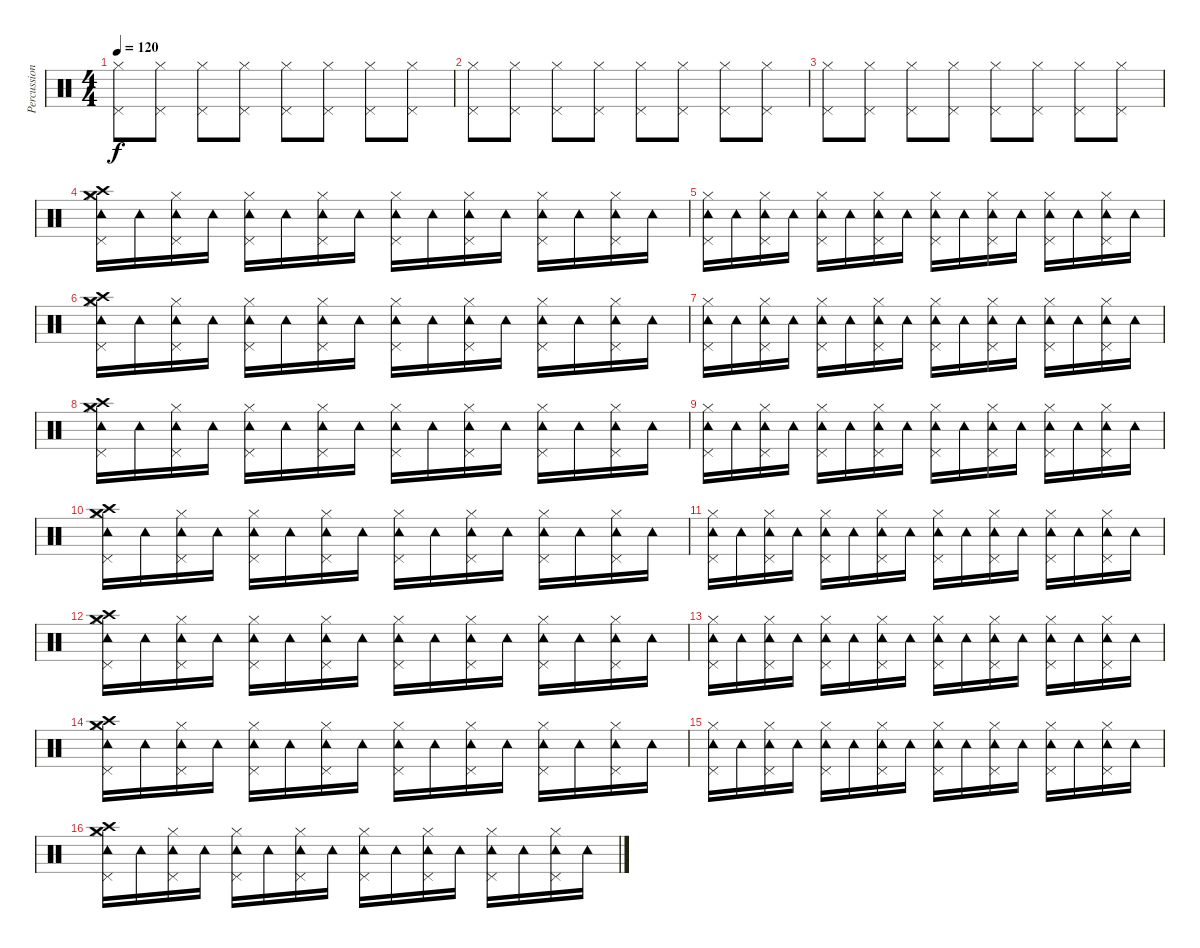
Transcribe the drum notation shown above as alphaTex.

\track ("Percussion" "Percussion") {instrument percussion}
\staff {score}
\articulation defaults
\ts (4 4)
\tempo 120
\clef neutral
\ks c
("Hi-Hat (closed)" "Pedal Hi-Hat (hit)").8{dy f} ("Hi-Hat (closed)" "Pedal Hi-Hat (hit)").8 ("Hi-Hat (closed)" "Pedal Hi-Hat (hit)").8 ("Hi-Hat (closed)" "Pedal Hi-Hat (hit)").8 ("Hi-Hat (closed)" "Pedal Hi-Hat (hit)").8 ("Hi-Hat (closed)" "Pedal Hi-Hat (hit)").8 ("Hi-Hat (closed)" "Pedal Hi-Hat (hit)").8 ("Hi-Hat (closed)" "Pedal Hi-Hat (hit)").8 |
("Hi-Hat (closed)" "Pedal Hi-Hat (hit)").8 ("Hi-Hat (closed)" "Pedal Hi-Hat (hit)").8 ("Hi-Hat (closed)" "Pedal Hi-Hat (hit)").8 ("Hi-Hat (closed)" "Pedal Hi-Hat (hit)").8 ("Hi-Hat (closed)" "Pedal Hi-Hat (hit)").8 ("Hi-Hat (closed)" "Pedal Hi-Hat (hit)").8 ("Hi-Hat (closed)" "Pedal Hi-Hat (hit)").8 ("Hi-Hat (closed)" "Pedal Hi-Hat (hit)").8 |
("Hi-Hat (closed)" "Pedal Hi-Hat (hit)").8 ("Hi-Hat (closed)" "Pedal Hi-Hat (hit)").8 ("Hi-Hat (closed)" "Pedal Hi-Hat (hit)").8 ("Hi-Hat (closed)" "Pedal Hi-Hat (hit)").8 ("Hi-Hat (closed)" "Pedal Hi-Hat (hit)").8 ("Hi-Hat (closed)" "Pedal Hi-Hat (hit)").8 ("Hi-Hat (closed)" "Pedal Hi-Hat (hit)").8 ("Hi-Hat (closed)" "Pedal Hi-Hat (hit)").8 |
("Hi-Hat (closed)" "Pedal Hi-Hat (hit)" "Tambourine (hit)" "Crash medium (hit)" "Crash high (hit)").16 "Tambourine (hit)".16 ("Hi-Hat (closed)" "Pedal Hi-Hat (hit)" "Tambourine (hit)").16 "Tambourine (hit)".16 ("Hi-Hat (closed)" "Pedal Hi-Hat (hit)" "Tambourine (hit)").16 "Tambourine (hit)".16 ("Hi-Hat (closed)" "Pedal Hi-Hat (hit)" "Tambourine (hit)").16 "Tambourine (hit)".16 ("Hi-Hat (closed)" "Pedal Hi-Hat (hit)" "Tambourine (hit)").16 "Tambourine (hit)".16 ("Hi-Hat (closed)" "Pedal Hi-Hat (hit)" "Tambourine (hit)").16 "Tambourine (hit)".16 ("Hi-Hat (closed)" "Pedal Hi-Hat (hit)" "Tambourine (hit)").16 "Tambourine (hit)".16 ("Hi-Hat (closed)" "Pedal Hi-Hat (hit)" "Tambourine (hit)").16 "Tambourine (hit)".16 |
("Hi-Hat (closed)" "Pedal Hi-Hat (hit)" "Tambourine (hit)").16 "Tambourine (hit)".16 ("Hi-Hat (closed)" "Pedal Hi-Hat (hit)" "Tambourine (hit)").16 "Tambourine (hit)".16 ("Hi-Hat (closed)" "Pedal Hi-Hat (hit)" "Tambourine (hit)").16 "Tambourine (hit)".16 ("Hi-Hat (closed)" "Pedal Hi-Hat (hit)" "Tambourine (hit)").16 "Tambourine (hit)".16 ("Hi-Hat (closed)" "Pedal Hi-Hat (hit)" "Tambourine (hit)").16 "Tambourine (hit)".16 ("Hi-Hat (closed)" "Pedal Hi-Hat (hit)" "Tambourine (hit)").16 "Tambourine (hit)".16 ("Hi-Hat (closed)" "Pedal Hi-Hat (hit)" "Tambourine (hit)").16 "Tambourine (hit)".16 ("Hi-Hat (closed)" "Pedal Hi-Hat (hit)" "Tambourine (hit)").16 "Tambourine (hit)".16 |
("Hi-Hat (closed)" "Pedal Hi-Hat (hit)" "Tambourine (hit)" "Crash medium (hit)" "Crash high (hit)").16 "Tambourine (hit)".16 ("Hi-Hat (closed)" "Pedal Hi-Hat (hit)" "Tambourine (hit)").16 "Tambourine (hit)".16 ("Hi-Hat (closed)" "Pedal Hi-Hat (hit)" "Tambourine (hit)").16 "Tambourine (hit)".16 ("Hi-Hat (closed)" "Pedal Hi-Hat (hit)" "Tambourine (hit)").16 "Tambourine (hit)".16 ("Hi-Hat (closed)" "Pedal Hi-Hat (hit)" "Tambourine (hit)").16 "Tambourine (hit)".16 ("Hi-Hat (closed)" "Pedal Hi-Hat (hit)" "Tambourine (hit)").16 "Tambourine (hit)".16 ("Hi-Hat (closed)" "Pedal Hi-Hat (hit)" "Tambourine (hit)").16 "Tambourine (hit)".16 ("Hi-Hat (closed)" "Pedal Hi-Hat (hit)" "Tambourine (hit)").16 "Tambourine (hit)".16 |
("Hi-Hat (closed)" "Pedal Hi-Hat (hit)" "Tambourine (hit)").16 "Tambourine (hit)".16 ("Hi-Hat (closed)" "Pedal Hi-Hat (hit)" "Tambourine (hit)").16 "Tambourine (hit)".16 ("Hi-Hat (closed)" "Pedal Hi-Hat (hit)" "Tambourine (hit)").16 "Tambourine (hit)".16 ("Hi-Hat (closed)" "Pedal Hi-Hat (hit)" "Tambourine (hit)").16 "Tambourine (hit)".16 ("Hi-Hat (closed)" "Pedal Hi-Hat (hit)" "Tambourine (hit)").16 "Tambourine (hit)".16 ("Hi-Hat (closed)" "Pedal Hi-Hat (hit)" "Tambourine (hit)").16 "Tambourine (hit)".16 ("Hi-Hat (closed)" "Pedal Hi-Hat (hit)" "Tambourine (hit)").16 "Tambourine (hit)".16 ("Hi-Hat (closed)" "Pedal Hi-Hat (hit)" "Tambourine (hit)").16 "Tambourine (hit)".16 |
("Hi-Hat (closed)" "Pedal Hi-Hat (hit)" "Tambourine (hit)" "Crash medium (hit)" "Crash high (hit)").16 "Tambourine (hit)".16 ("Hi-Hat (closed)" "Pedal Hi-Hat (hit)" "Tambourine (hit)").16 "Tambourine (hit)".16 ("Hi-Hat (closed)" "Pedal Hi-Hat (hit)" "Tambourine (hit)").16 "Tambourine (hit)".16 ("Hi-Hat (closed)" "Pedal Hi-Hat (hit)" "Tambourine (hit)").16 "Tambourine (hit)".16 ("Hi-Hat (closed)" "Pedal Hi-Hat (hit)" "Tambourine (hit)").16 "Tambourine (hit)".16 ("Hi-Hat (closed)" "Pedal Hi-Hat (hit)" "Tambourine (hit)").16 "Tambourine (hit)".16 ("Hi-Hat (closed)" "Pedal Hi-Hat (hit)" "Tambourine (hit)").16 "Tambourine (hit)".16 ("Hi-Hat (closed)" "Pedal Hi-Hat (hit)" "Tambourine (hit)").16 "Tambourine (hit)".16 |
("Hi-Hat (closed)" "Pedal Hi-Hat (hit)" "Tambourine (hit)").16 "Tambourine (hit)".16 ("Hi-Hat (closed)" "Pedal Hi-Hat (hit)" "Tambourine (hit)").16 "Tambourine (hit)".16 ("Hi-Hat (closed)" "Pedal Hi-Hat (hit)" "Tambourine (hit)").16 "Tambourine (hit)".16 ("Hi-Hat (closed)" "Pedal Hi-Hat (hit)" "Tambourine (hit)").16 "Tambourine (hit)".16 ("Hi-Hat (closed)" "Pedal Hi-Hat (hit)" "Tambourine (hit)").16 "Tambourine (hit)".16 ("Hi-Hat (closed)" "Pedal Hi-Hat (hit)" "Tambourine (hit)").16 "Tambourine (hit)".16 ("Hi-Hat (closed)" "Pedal Hi-Hat (hit)" "Tambourine (hit)").16 "Tambourine (hit)".16 ("Hi-Hat (closed)" "Pedal Hi-Hat (hit)" "Tambourine (hit)").16 "Tambourine (hit)".16 |
("Hi-Hat (closed)" "Pedal Hi-Hat (hit)" "Tambourine (hit)" "Crash medium (hit)" "Crash high (hit)").16 "Tambourine (hit)".16 ("Hi-Hat (closed)" "Pedal Hi-Hat (hit)" "Tambourine (hit)").16 "Tambourine (hit)".16 ("Hi-Hat (closed)" "Pedal Hi-Hat (hit)" "Tambourine (hit)").16 "Tambourine (hit)".16 ("Hi-Hat (closed)" "Pedal Hi-Hat (hit)" "Tambourine (hit)").16 "Tambourine (hit)".16 ("Hi-Hat (closed)" "Pedal Hi-Hat (hit)" "Tambourine (hit)").16 "Tambourine (hit)".16 ("Hi-Hat (closed)" "Pedal Hi-Hat (hit)" "Tambourine (hit)").16 "Tambourine (hit)".16 ("Hi-Hat (closed)" "Pedal Hi-Hat (hit)" "Tambourine (hit)").16 "Tambourine (hit)".16 ("Hi-Hat (closed)" "Pedal Hi-Hat (hit)" "Tambourine (hit)").16 "Tambourine (hit)".16 |
("Hi-Hat (closed)" "Pedal Hi-Hat (hit)" "Tambourine (hit)").16 "Tambourine (hit)".16 ("Hi-Hat (closed)" "Pedal Hi-Hat (hit)" "Tambourine (hit)").16 "Tambourine (hit)".16 ("Hi-Hat (closed)" "Pedal Hi-Hat (hit)" "Tambourine (hit)").16 "Tambourine (hit)".16 ("Hi-Hat (closed)" "Pedal Hi-Hat (hit)" "Tambourine (hit)").16 "Tambourine (hit)".16 ("Hi-Hat (closed)" "Pedal Hi-Hat (hit)" "Tambourine (hit)").16 "Tambourine (hit)".16 ("Hi-Hat (closed)" "Pedal Hi-Hat (hit)" "Tambourine (hit)").16 "Tambourine (hit)".16 ("Hi-Hat (closed)" "Pedal Hi-Hat (hit)" "Tambourine (hit)").16 "Tambourine (hit)".16 ("Hi-Hat (closed)" "Pedal Hi-Hat (hit)" "Tambourine (hit)").16 "Tambourine (hit)".16 |
("Hi-Hat (closed)" "Pedal Hi-Hat (hit)" "Tambourine (hit)" "Crash medium (hit)" "Crash high (hit)").16 "Tambourine (hit)".16 ("Hi-Hat (closed)" "Pedal Hi-Hat (hit)" "Tambourine (hit)").16 "Tambourine (hit)".16 ("Hi-Hat (closed)" "Pedal Hi-Hat (hit)" "Tambourine (hit)").16 "Tambourine (hit)".16 ("Hi-Hat (closed)" "Pedal Hi-Hat (hit)" "Tambourine (hit)").16 "Tambourine (hit)".16 ("Hi-Hat (closed)" "Pedal Hi-Hat (hit)" "Tambourine (hit)").16 "Tambourine (hit)".16 ("Hi-Hat (closed)" "Pedal Hi-Hat (hit)" "Tambourine (hit)").16 "Tambourine (hit)".16 ("Hi-Hat (closed)" "Pedal Hi-Hat (hit)" "Tambourine (hit)").16 "Tambourine (hit)".16 ("Hi-Hat (closed)" "Pedal Hi-Hat (hit)" "Tambourine (hit)").16 "Tambourine (hit)".16 |
("Hi-Hat (closed)" "Pedal Hi-Hat (hit)" "Tambourine (hit)").16 "Tambourine (hit)".16 ("Hi-Hat (closed)" "Pedal Hi-Hat (hit)" "Tambourine (hit)").16 "Tambourine (hit)".16 ("Hi-Hat (closed)" "Pedal Hi-Hat (hit)" "Tambourine (hit)").16 "Tambourine (hit)".16 ("Hi-Hat (closed)" "Pedal Hi-Hat (hit)" "Tambourine (hit)").16 "Tambourine (hit)".16 ("Hi-Hat (closed)" "Pedal Hi-Hat (hit)" "Tambourine (hit)").16 "Tambourine (hit)".16 ("Hi-Hat (closed)" "Pedal Hi-Hat (hit)" "Tambourine (hit)").16 "Tambourine (hit)".16 ("Hi-Hat (closed)" "Pedal Hi-Hat (hit)" "Tambourine (hit)").16 "Tambourine (hit)".16 ("Hi-Hat (closed)" "Pedal Hi-Hat (hit)" "Tambourine (hit)").16 "Tambourine (hit)".16 |
("Hi-Hat (closed)" "Pedal Hi-Hat (hit)" "Tambourine (hit)" "Crash medium (hit)" "Crash high (hit)").16 "Tambourine (hit)".16 ("Hi-Hat (closed)" "Pedal Hi-Hat (hit)" "Tambourine (hit)").16 "Tambourine (hit)".16 ("Hi-Hat (closed)" "Pedal Hi-Hat (hit)" "Tambourine (hit)").16 "Tambourine (hit)".16 ("Hi-Hat (closed)" "Pedal Hi-Hat (hit)" "Tambourine (hit)").16 "Tambourine (hit)".16 ("Hi-Hat (closed)" "Pedal Hi-Hat (hit)" "Tambourine (hit)").16 "Tambourine (hit)".16 ("Hi-Hat (closed)" "Pedal Hi-Hat (hit)" "Tambourine (hit)").16 "Tambourine (hit)".16 ("Hi-Hat (closed)" "Pedal Hi-Hat (hit)" "Tambourine (hit)").16 "Tambourine (hit)".16 ("Hi-Hat (closed)" "Pedal Hi-Hat (hit)" "Tambourine (hit)").16 "Tambourine (hit)".16 |
("Hi-Hat (closed)" "Pedal Hi-Hat (hit)" "Tambourine (hit)").16 "Tambourine (hit)".16 ("Hi-Hat (closed)" "Pedal Hi-Hat (hit)" "Tambourine (hit)").16 "Tambourine (hit)".16 ("Hi-Hat (closed)" "Pedal Hi-Hat (hit)" "Tambourine (hit)").16 "Tambourine (hit)".16 ("Hi-Hat (closed)" "Pedal Hi-Hat (hit)" "Tambourine (hit)").16 "Tambourine (hit)".16 ("Hi-Hat (closed)" "Pedal Hi-Hat (hit)" "Tambourine (hit)").16 "Tambourine (hit)".16 ("Hi-Hat (closed)" "Pedal Hi-Hat (hit)" "Tambourine (hit)").16 "Tambourine (hit)".16 ("Hi-Hat (closed)" "Pedal Hi-Hat (hit)" "Tambourine (hit)").16 "Tambourine (hit)".16 ("Hi-Hat (closed)" "Pedal Hi-Hat (hit)" "Tambourine (hit)").16 "Tambourine (hit)".16 |
("Hi-Hat (closed)" "Pedal Hi-Hat (hit)" "Tambourine (hit)" "Crash medium (hit)" "Crash high (hit)").16 "Tambourine (hit)".16 ("Hi-Hat (closed)" "Pedal Hi-Hat (hit)" "Tambourine (hit)").16 "Tambourine (hit)".16 ("Hi-Hat (closed)" "Pedal Hi-Hat (hit)" "Tambourine (hit)").16 "Tambourine (hit)".16 ("Hi-Hat (closed)" "Pedal Hi-Hat (hit)" "Tambourine (hit)").16 "Tambourine (hit)".16 ("Hi-Hat (closed)" "Pedal Hi-Hat (hit)" "Tambourine (hit)").16 "Tambourine (hit)".16 ("Hi-Hat (closed)" "Pedal Hi-Hat (hit)" "Tambourine (hit)").16 "Tambourine (hit)".16 ("Hi-Hat (closed)" "Pedal Hi-Hat (hit)" "Tambourine (hit)").16 "Tambourine (hit)".16 ("Hi-Hat (closed)" "Pedal Hi-Hat (hit)" "Tambourine (hit)").16 "Tambourine (hit)".16
